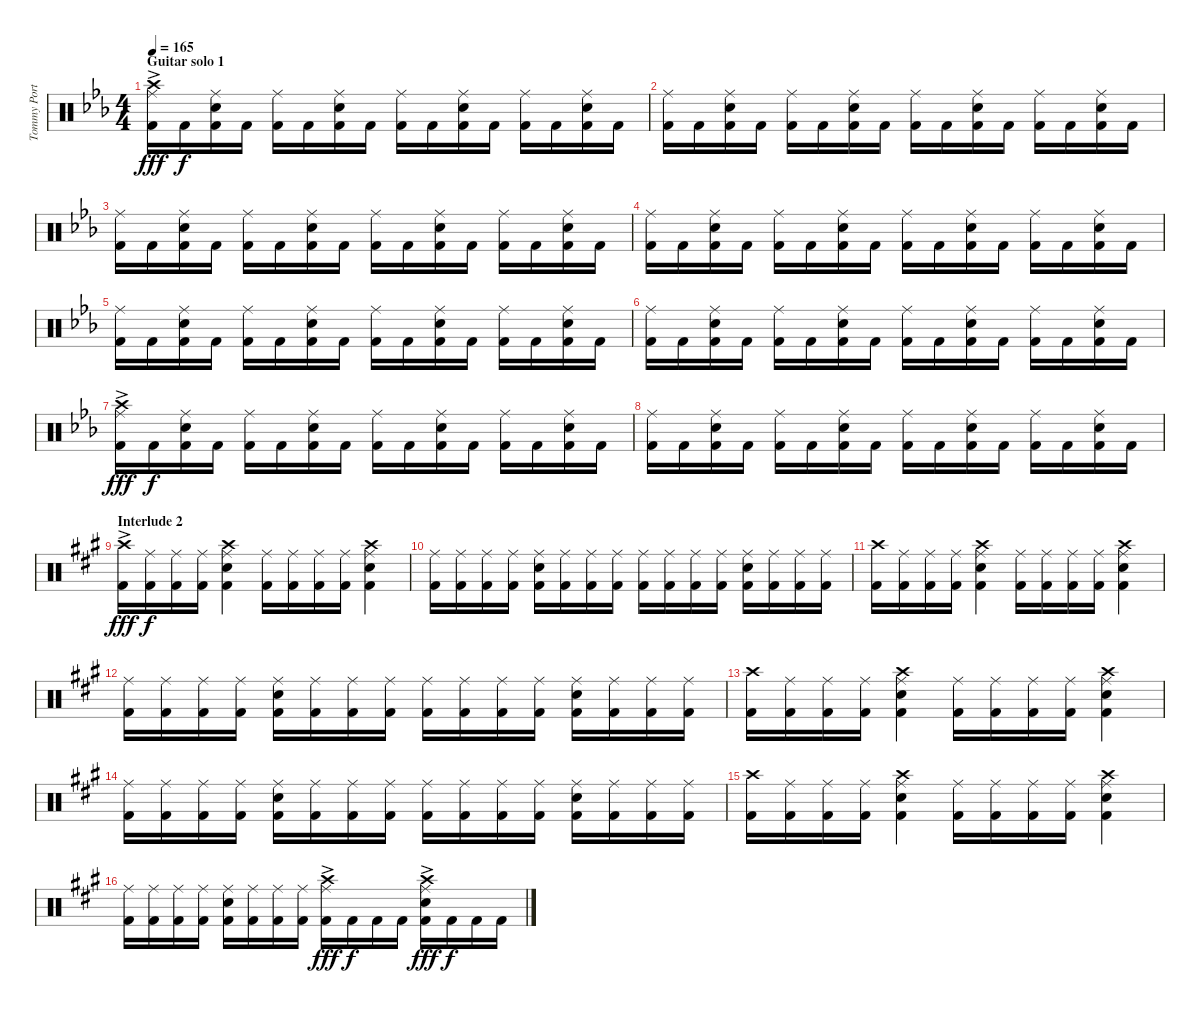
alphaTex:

\track ("Tommy Portimo" "Tommy Port") {instrument percussion}
\staff {score}
\articulation defaults
\ts (4 4)
\section ("" "Guitar solo 1")
\tempo 165
\clef neutral
\ks cminor
("Crash high (hit)"{ac} "Ride (middle)" "Kick (hit) 2").16{dy fff} "Kick (hit) 2".16{dy f} ("Ride (middle)" "Electric Snare (hit)" "Kick (hit) 2").16 "Kick (hit) 2".16 ("Ride (middle)" "Kick (hit) 2").16 "Kick (hit) 2".16 ("Ride (middle)" "Electric Snare (hit)" "Kick (hit) 2").16 "Kick (hit) 2".16 ("Ride (middle)" "Kick (hit) 2").16 "Kick (hit) 2".16 ("Ride (middle)" "Electric Snare (hit)" "Kick (hit) 2").16 "Kick (hit) 2".16 ("Ride (middle)" "Kick (hit) 2").16 "Kick (hit) 2".16 ("Ride (middle)" "Electric Snare (hit)" "Kick (hit) 2").16 "Kick (hit) 2".16 |
("Ride (middle)" "Kick (hit) 2").16 "Kick (hit) 2".16 ("Ride (middle)" "Electric Snare (hit)" "Kick (hit) 2").16 "Kick (hit) 2".16 ("Ride (middle)" "Kick (hit) 2").16 "Kick (hit) 2".16 ("Ride (middle)" "Electric Snare (hit)" "Kick (hit) 2").16 "Kick (hit) 2".16 ("Ride (middle)" "Kick (hit) 2").16 "Kick (hit) 2".16 ("Ride (middle)" "Electric Snare (hit)" "Kick (hit) 2").16 "Kick (hit) 2".16 ("Ride (middle)" "Kick (hit) 2").16 "Kick (hit) 2".16 ("Ride (middle)" "Electric Snare (hit)" "Kick (hit) 2").16 "Kick (hit) 2".16 |
("Ride (middle)" "Kick (hit) 2").16 "Kick (hit) 2".16 ("Ride (middle)" "Electric Snare (hit)" "Kick (hit) 2").16 "Kick (hit) 2".16 ("Ride (middle)" "Kick (hit) 2").16 "Kick (hit) 2".16 ("Ride (middle)" "Electric Snare (hit)" "Kick (hit) 2").16 "Kick (hit) 2".16 ("Ride (middle)" "Kick (hit) 2").16 "Kick (hit) 2".16 ("Ride (middle)" "Electric Snare (hit)" "Kick (hit) 2").16 "Kick (hit) 2".16 ("Ride (middle)" "Kick (hit) 2").16 "Kick (hit) 2".16 ("Ride (middle)" "Electric Snare (hit)" "Kick (hit) 2").16 "Kick (hit) 2".16 |
("Ride (middle)" "Kick (hit) 2").16 "Kick (hit) 2".16 ("Ride (middle)" "Electric Snare (hit)" "Kick (hit) 2").16 "Kick (hit) 2".16 ("Ride (middle)" "Kick (hit) 2").16 "Kick (hit) 2".16 ("Ride (middle)" "Electric Snare (hit)" "Kick (hit) 2").16 "Kick (hit) 2".16 ("Ride (middle)" "Kick (hit) 2").16 "Kick (hit) 2".16 ("Ride (middle)" "Electric Snare (hit)" "Kick (hit) 2").16 "Kick (hit) 2".16 ("Ride (middle)" "Kick (hit) 2").16 "Kick (hit) 2".16 ("Ride (middle)" "Electric Snare (hit)" "Kick (hit) 2").16 "Kick (hit) 2".16 |
("Ride (middle)" "Kick (hit) 2").16 "Kick (hit) 2".16 ("Ride (middle)" "Electric Snare (hit)" "Kick (hit) 2").16 "Kick (hit) 2".16 ("Ride (middle)" "Kick (hit) 2").16 "Kick (hit) 2".16 ("Ride (middle)" "Electric Snare (hit)" "Kick (hit) 2").16 "Kick (hit) 2".16 ("Ride (middle)" "Kick (hit) 2").16 "Kick (hit) 2".16 ("Ride (middle)" "Electric Snare (hit)" "Kick (hit) 2").16 "Kick (hit) 2".16 ("Ride (middle)" "Kick (hit) 2").16 "Kick (hit) 2".16 ("Ride (middle)" "Electric Snare (hit)" "Kick (hit) 2").16 "Kick (hit) 2".16 |
("Ride (middle)" "Kick (hit) 2").16 "Kick (hit) 2".16 ("Ride (middle)" "Electric Snare (hit)" "Kick (hit) 2").16 "Kick (hit) 2".16 ("Ride (middle)" "Kick (hit) 2").16 "Kick (hit) 2".16 ("Ride (middle)" "Electric Snare (hit)" "Kick (hit) 2").16 "Kick (hit) 2".16 ("Ride (middle)" "Kick (hit) 2").16 "Kick (hit) 2".16 ("Ride (middle)" "Electric Snare (hit)" "Kick (hit) 2").16 "Kick (hit) 2".16 ("Ride (middle)" "Kick (hit) 2").16 "Kick (hit) 2".16 ("Ride (middle)" "Electric Snare (hit)" "Kick (hit) 2").16 "Kick (hit) 2".16 |
("Crash high (hit)"{ac} "Ride (middle)" "Kick (hit) 2").16{dy fff} "Kick (hit) 2".16{dy f} ("Ride (middle)" "Electric Snare (hit)" "Kick (hit) 2").16 "Kick (hit) 2".16 ("Ride (middle)" "Kick (hit) 2").16 "Kick (hit) 2".16 ("Ride (middle)" "Electric Snare (hit)" "Kick (hit) 2").16 "Kick (hit) 2".16 ("Ride (middle)" "Kick (hit) 2").16 "Kick (hit) 2".16 ("Ride (middle)" "Electric Snare (hit)" "Kick (hit) 2").16 "Kick (hit) 2".16 ("Ride (middle)" "Kick (hit) 2").16 "Kick (hit) 2".16 ("Ride (middle)" "Electric Snare (hit)" "Kick (hit) 2").16 "Kick (hit) 2".16 |
("Ride (middle)" "Kick (hit) 2").16 "Kick (hit) 2".16 ("Ride (middle)" "Electric Snare (hit)" "Kick (hit) 2").16 "Kick (hit) 2".16 ("Ride (middle)" "Kick (hit) 2").16 "Kick (hit) 2".16 ("Ride (middle)" "Electric Snare (hit)" "Kick (hit) 2").16 "Kick (hit) 2".16 ("Ride (middle)" "Kick (hit) 2").16 "Kick (hit) 2".16 ("Ride (middle)" "Electric Snare (hit)" "Kick (hit) 2").16 "Kick (hit) 2".16 ("Ride (middle)" "Kick (hit) 2").16 "Kick (hit) 2".16 ("Ride (middle)" "Electric Snare (hit)" "Kick (hit) 2").16 "Kick (hit) 2".16 |
\section ("" "Interlude 2")
\ks f#minor
("Crash high (hit)"{ac} "Kick (hit) 2").16{dy fff} ("Ride (middle)" "Kick (hit) 2").16{dy f} ("Ride (middle)" "Kick (hit) 2").16 ("Ride (middle)" "Kick (hit) 2").16 ("Crash high (hit)" "Ride (middle)" "Electric Snare (hit)" "Kick (hit) 2").4 ("Ride (middle)" "Kick (hit) 2").16 ("Ride (middle)" "Kick (hit) 2").16 ("Ride (middle)" "Kick (hit) 2").16 ("Ride (middle)" "Kick (hit) 2").16 ("Crash high (hit)" "Ride (middle)" "Electric Snare (hit)" "Kick (hit) 2").4 |
("Ride (middle)" "Kick (hit) 2").16 ("Ride (middle)" "Kick (hit) 2").16 ("Ride (middle)" "Kick (hit) 2").16 ("Ride (middle)" "Kick (hit) 2").16 ("Ride (middle)" "Electric Snare (hit)" "Kick (hit) 2").16 ("Ride (middle)" "Kick (hit) 2").16 ("Ride (middle)" "Kick (hit) 2").16 ("Ride (middle)" "Kick (hit) 2").16 ("Ride (middle)" "Kick (hit) 2").16 ("Ride (middle)" "Kick (hit) 2").16 ("Ride (middle)" "Kick (hit) 2").16 ("Ride (middle)" "Kick (hit) 2").16 ("Ride (middle)" "Electric Snare (hit)" "Kick (hit) 2").16 ("Ride (middle)" "Kick (hit) 2").16 ("Ride (middle)" "Kick (hit) 2").16 ("Ride (middle)" "Kick (hit) 2").16 |
("Crash high (hit)" "Kick (hit) 2").16 ("Ride (middle)" "Kick (hit) 2").16 ("Ride (middle)" "Kick (hit) 2").16 ("Ride (middle)" "Kick (hit) 2").16 ("Crash high (hit)" "Ride (middle)" "Electric Snare (hit)" "Kick (hit) 2").4 ("Ride (middle)" "Kick (hit) 2").16 ("Ride (middle)" "Kick (hit) 2").16 ("Ride (middle)" "Kick (hit) 2").16 ("Ride (middle)" "Kick (hit) 2").16 ("Crash high (hit)" "Ride (middle)" "Electric Snare (hit)" "Kick (hit) 2").4 |
("Ride (middle)" "Kick (hit) 2").16 ("Ride (middle)" "Kick (hit) 2").16 ("Ride (middle)" "Kick (hit) 2").16 ("Ride (middle)" "Kick (hit) 2").16 ("Ride (middle)" "Electric Snare (hit)" "Kick (hit) 2").16 ("Ride (middle)" "Kick (hit) 2").16 ("Ride (middle)" "Kick (hit) 2").16 ("Ride (middle)" "Kick (hit) 2").16 ("Ride (middle)" "Kick (hit) 2").16 ("Ride (middle)" "Kick (hit) 2").16 ("Ride (middle)" "Kick (hit) 2").16 ("Ride (middle)" "Kick (hit) 2").16 ("Ride (middle)" "Electric Snare (hit)" "Kick (hit) 2").16 ("Ride (middle)" "Kick (hit) 2").16 ("Ride (middle)" "Kick (hit) 2").16 ("Ride (middle)" "Kick (hit) 2").16 |
("Crash high (hit)" "Kick (hit) 2").16 ("Ride (middle)" "Kick (hit) 2").16 ("Ride (middle)" "Kick (hit) 2").16 ("Ride (middle)" "Kick (hit) 2").16 ("Crash high (hit)" "Ride (middle)" "Electric Snare (hit)" "Kick (hit) 2").4 ("Ride (middle)" "Kick (hit) 2").16 ("Ride (middle)" "Kick (hit) 2").16 ("Ride (middle)" "Kick (hit) 2").16 ("Ride (middle)" "Kick (hit) 2").16 ("Crash high (hit)" "Ride (middle)" "Electric Snare (hit)" "Kick (hit) 2").4 |
("Ride (middle)" "Kick (hit) 2").16 ("Ride (middle)" "Kick (hit) 2").16 ("Ride (middle)" "Kick (hit) 2").16 ("Ride (middle)" "Kick (hit) 2").16 ("Ride (middle)" "Electric Snare (hit)" "Kick (hit) 2").16 ("Ride (middle)" "Kick (hit) 2").16 ("Ride (middle)" "Kick (hit) 2").16 ("Ride (middle)" "Kick (hit) 2").16 ("Ride (middle)" "Kick (hit) 2").16 ("Ride (middle)" "Kick (hit) 2").16 ("Ride (middle)" "Kick (hit) 2").16 ("Ride (middle)" "Kick (hit) 2").16 ("Ride (middle)" "Electric Snare (hit)" "Kick (hit) 2").16 ("Ride (middle)" "Kick (hit) 2").16 ("Ride (middle)" "Kick (hit) 2").16 ("Ride (middle)" "Kick (hit) 2").16 |
("Crash high (hit)" "Kick (hit) 2").16 ("Ride (middle)" "Kick (hit) 2").16 ("Ride (middle)" "Kick (hit) 2").16 ("Ride (middle)" "Kick (hit) 2").16 ("Crash high (hit)" "Ride (middle)" "Electric Snare (hit)" "Kick (hit) 2").4 ("Ride (middle)" "Kick (hit) 2").16 ("Ride (middle)" "Kick (hit) 2").16 ("Ride (middle)" "Kick (hit) 2").16 ("Ride (middle)" "Kick (hit) 2").16 ("Crash high (hit)" "Ride (middle)" "Electric Snare (hit)" "Kick (hit) 2").4 |
("Ride (middle)" "Kick (hit) 2").16 ("Ride (middle)" "Kick (hit) 2").16 ("Ride (middle)" "Kick (hit) 2").16 ("Ride (middle)" "Kick (hit) 2").16 ("Ride (middle)" "Electric Snare (hit)" "Kick (hit) 2").16 ("Ride (middle)" "Kick (hit) 2").16 ("Ride (middle)" "Kick (hit) 2").16 ("Ride (middle)" "Kick (hit) 2").16 ("Crash high (hit)"{ac} "Ride (middle)" "Kick (hit) 2").16{dy fff} "Kick (hit) 2".16{dy f} "Kick (hit) 2".16 "Kick (hit) 2".16 ("Crash high (hit)"{ac} "Ride (middle)" "Electric Snare (hit)" "Kick (hit) 2").16{dy fff} "Kick (hit) 2".16{dy f} "Kick (hit) 2".16 "Kick (hit) 2".16
